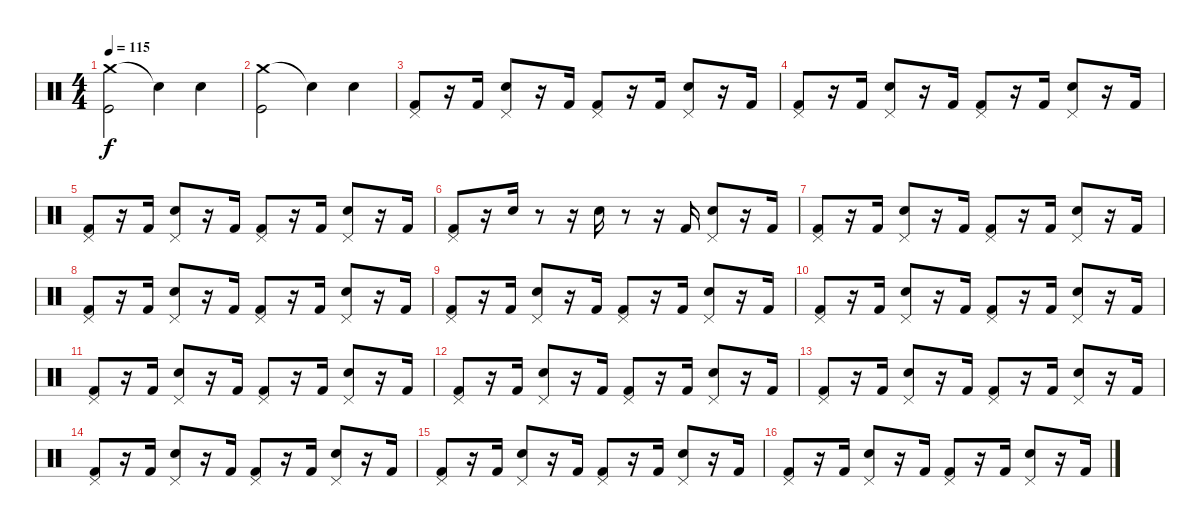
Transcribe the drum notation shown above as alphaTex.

\track "" {instrument percussion}
\staff {score}
\articulation defaults
\ts (4 4)
\tempo 115
\clef neutral
\ks c
("Crash medium (hit)" "Kick (hit)").2{dy f} "Snare (hit)"{t}.4 "Snare (hit) 2".4 |
("Crash medium (hit)" "Kick (hit)").2 "Snare (hit)"{t}.4 "Snare (hit) 2".4 |
("Pedal Hi-Hat (hit)" "Kick (hit) 2").8 r.16 "Kick (hit) 2".16 ("Pedal Hi-Hat (hit)" "Snare (hit) 2").8 r.16 "Kick (hit) 2".16 ("Pedal Hi-Hat (hit)" "Kick (hit) 2").8 r.16 "Kick (hit) 2".16 ("Pedal Hi-Hat (hit)" "Snare (hit) 2").8 r.16 "Kick (hit) 2".16 |
("Pedal Hi-Hat (hit)" "Kick (hit) 2").8 r.16 "Kick (hit) 2".16 ("Pedal Hi-Hat (hit)" "Snare (hit) 2").8 r.16 "Kick (hit) 2".16 ("Pedal Hi-Hat (hit)" "Kick (hit) 2").8 r.16 "Kick (hit) 2".16 ("Pedal Hi-Hat (hit)" "Snare (hit) 2").8 r.16 "Kick (hit) 2".16 |
("Pedal Hi-Hat (hit)" "Kick (hit) 2").8 r.16 "Kick (hit) 2".16 ("Pedal Hi-Hat (hit)" "Snare (hit) 2").8 r.16 "Kick (hit) 2".16 ("Pedal Hi-Hat (hit)" "Kick (hit) 2").8 r.16 "Kick (hit) 2".16 ("Pedal Hi-Hat (hit)" "Snare (hit) 2").8 r.16 "Kick (hit) 2".16 |
("Pedal Hi-Hat (hit)" "Kick (hit) 2").8 r.16 "Snare (hit) 2".16 r.8 r.16 "Snare (hit) 2".16 r.8 r.16 "Kick (hit) 2".16 ("Pedal Hi-Hat (hit)" "Snare (hit) 2").8 r.16 "Kick (hit) 2".16 |
("Pedal Hi-Hat (hit)" "Kick (hit) 2").8 r.16 "Kick (hit) 2".16 ("Pedal Hi-Hat (hit)" "Snare (hit) 2").8 r.16 "Kick (hit) 2".16 ("Pedal Hi-Hat (hit)" "Kick (hit) 2").8 r.16 "Kick (hit) 2".16 ("Pedal Hi-Hat (hit)" "Snare (hit) 2").8 r.16 "Kick (hit) 2".16 |
("Pedal Hi-Hat (hit)" "Kick (hit) 2").8 r.16 "Kick (hit) 2".16 ("Pedal Hi-Hat (hit)" "Snare (hit) 2").8 r.16 "Kick (hit) 2".16 ("Pedal Hi-Hat (hit)" "Kick (hit) 2").8 r.16 "Kick (hit) 2".16 ("Pedal Hi-Hat (hit)" "Snare (hit) 2").8 r.16 "Kick (hit) 2".16 |
("Pedal Hi-Hat (hit)" "Kick (hit) 2").8 r.16 "Kick (hit) 2".16 ("Pedal Hi-Hat (hit)" "Snare (hit) 2").8 r.16 "Kick (hit) 2".16 ("Pedal Hi-Hat (hit)" "Kick (hit) 2").8 r.16 "Kick (hit) 2".16 ("Pedal Hi-Hat (hit)" "Snare (hit) 2").8 r.16 "Kick (hit) 2".16 |
("Pedal Hi-Hat (hit)" "Kick (hit) 2").8 r.16 "Kick (hit) 2".16 ("Pedal Hi-Hat (hit)" "Snare (hit) 2").8 r.16 "Kick (hit) 2".16 ("Pedal Hi-Hat (hit)" "Kick (hit) 2").8 r.16 "Kick (hit) 2".16 ("Pedal Hi-Hat (hit)" "Snare (hit) 2").8 r.16 "Kick (hit) 2".16 |
("Pedal Hi-Hat (hit)" "Kick (hit) 2").8 r.16 "Kick (hit) 2".16 ("Pedal Hi-Hat (hit)" "Snare (hit) 2").8 r.16 "Kick (hit) 2".16 ("Pedal Hi-Hat (hit)" "Kick (hit) 2").8 r.16 "Kick (hit) 2".16 ("Pedal Hi-Hat (hit)" "Snare (hit) 2").8 r.16 "Kick (hit) 2".16 |
("Pedal Hi-Hat (hit)" "Kick (hit) 2").8 r.16 "Kick (hit) 2".16 ("Pedal Hi-Hat (hit)" "Snare (hit) 2").8 r.16 "Kick (hit) 2".16 ("Pedal Hi-Hat (hit)" "Kick (hit) 2").8 r.16 "Kick (hit) 2".16 ("Pedal Hi-Hat (hit)" "Snare (hit) 2").8 r.16 "Kick (hit) 2".16 |
("Pedal Hi-Hat (hit)" "Kick (hit) 2").8 r.16 "Kick (hit) 2".16 ("Pedal Hi-Hat (hit)" "Snare (hit) 2").8 r.16 "Kick (hit) 2".16 ("Pedal Hi-Hat (hit)" "Kick (hit) 2").8 r.16 "Kick (hit) 2".16 ("Pedal Hi-Hat (hit)" "Snare (hit) 2").8 r.16 "Kick (hit) 2".16 |
("Pedal Hi-Hat (hit)" "Kick (hit) 2").8 r.16 "Kick (hit) 2".16 ("Pedal Hi-Hat (hit)" "Snare (hit) 2").8 r.16 "Kick (hit) 2".16 ("Pedal Hi-Hat (hit)" "Kick (hit) 2").8 r.16 "Kick (hit) 2".16 ("Pedal Hi-Hat (hit)" "Snare (hit) 2").8 r.16 "Kick (hit) 2".16 |
("Pedal Hi-Hat (hit)" "Kick (hit) 2").8 r.16 "Kick (hit) 2".16 ("Pedal Hi-Hat (hit)" "Snare (hit) 2").8 r.16 "Kick (hit) 2".16 ("Pedal Hi-Hat (hit)" "Kick (hit) 2").8 r.16 "Kick (hit) 2".16 ("Pedal Hi-Hat (hit)" "Snare (hit) 2").8 r.16 "Kick (hit) 2".16 |
("Pedal Hi-Hat (hit)" "Kick (hit) 2").8 r.16 "Kick (hit) 2".16 ("Pedal Hi-Hat (hit)" "Snare (hit) 2").8 r.16 "Kick (hit) 2".16 ("Pedal Hi-Hat (hit)" "Kick (hit) 2").8 r.16 "Kick (hit) 2".16 ("Pedal Hi-Hat (hit)" "Snare (hit) 2").8 r.16 "Kick (hit) 2".16
